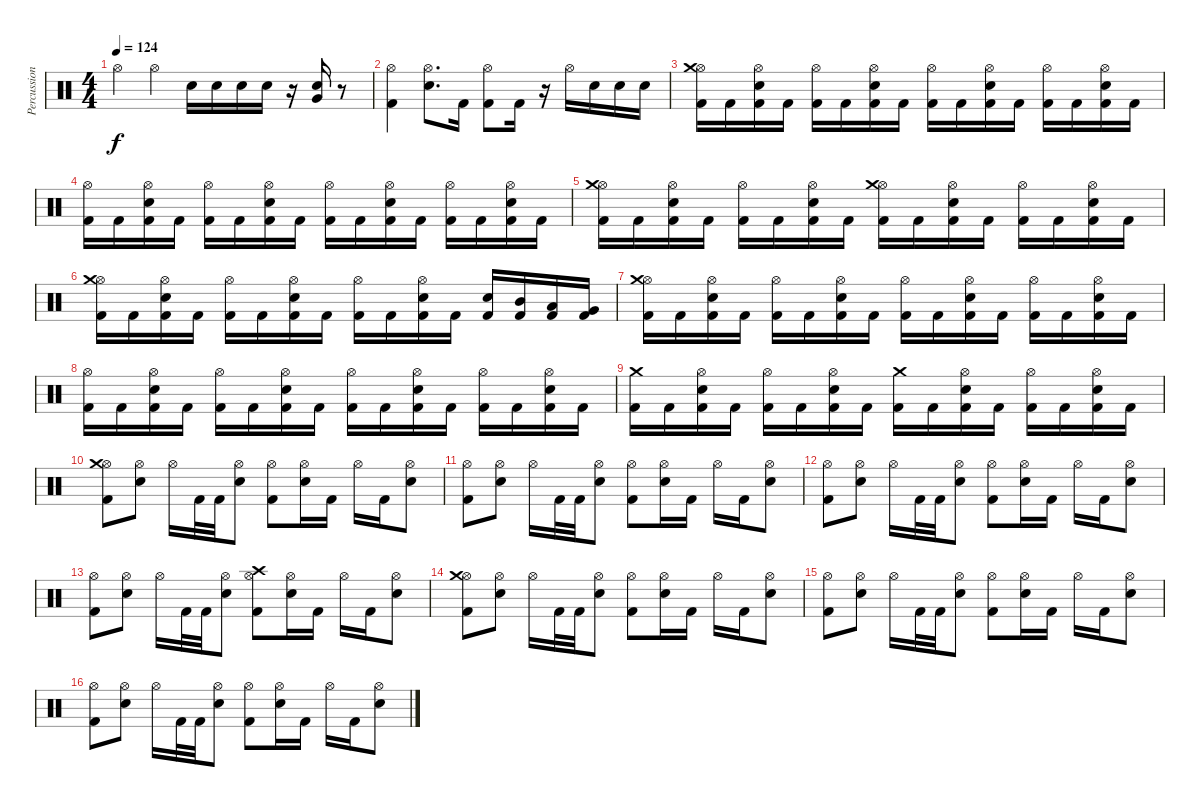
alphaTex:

\track ("Percussion" "Percussion") {instrument percussion}
\staff {score}
\articulation defaults
\ts (4 4)
\tempo 124
\clef neutral
\ks c "Hi-Hat (open)".4{dy f} "Hi-Hat (open)".4 "Electric Snare (hit)".16 "Electric Snare (hit)".16 "Electric Snare (hit)".16 "Electric Snare (hit)".16
r.16 ("Electric Snare (hit)" "Very Low Tom (hit)").16 r.8 |
("Kick (hit) 2" "Hi-Hat (open)").4 ("Electric Snare (hit)" "Hi-Hat (open)").8{d} "Kick (hit) 2".16 ("Kick (hit) 2" "Hi-Hat (open)").8 "Kick (hit) 2".16 r.16 "Hi-Hat (open)".16 "Electric Snare (hit)".16 "Electric Snare (hit)".16 "Electric Snare (hit)".16 |
("Kick (hit) 2" "Hi-Hat (open)" "Crash medium (hit)").16 "Kick (hit) 2".16 ("Kick (hit) 2" "Electric Snare (hit)" "Hi-Hat (open)").16 "Kick (hit) 2".16 ("Kick (hit) 2" "Hi-Hat (open)").16 "Kick (hit) 2".16 ("Kick (hit) 2" "Electric Snare (hit)" "Hi-Hat (open)").16 "Kick (hit) 2".16 ("Kick (hit) 2" "Hi-Hat (open)").16 "Kick (hit) 2".16 ("Kick (hit) 2" "Electric Snare (hit)" "Hi-Hat (open)").16 "Kick (hit) 2".16 ("Kick (hit) 2" "Hi-Hat (open)").16 "Kick (hit) 2".16 ("Kick (hit) 2" "Electric Snare (hit)" "Hi-Hat (open)").16 "Kick (hit) 2".16 |
("Kick (hit) 2" "Hi-Hat (open)").16 "Kick (hit) 2".16 ("Kick (hit) 2" "Electric Snare (hit)" "Hi-Hat (open)").16 "Kick (hit) 2".16 ("Kick (hit) 2" "Hi-Hat (open)").16 "Kick (hit) 2".16 ("Kick (hit) 2" "Electric Snare (hit)" "Hi-Hat (open)").16 "Kick (hit) 2".16 ("Kick (hit) 2" "Hi-Hat (open)").16 "Kick (hit) 2".16 ("Kick (hit) 2" "Electric Snare (hit)" "Hi-Hat (open)").16 "Kick (hit) 2".16 ("Kick (hit) 2" "Hi-Hat (open)").16 "Kick (hit) 2".16 ("Kick (hit) 2" "Electric Snare (hit)" "Hi-Hat (open)").16 "Kick (hit) 2".16 |
("Kick (hit) 2" "Hi-Hat (open)" "Crash medium (hit)").16 "Kick (hit) 2".16 ("Kick (hit) 2" "Electric Snare (hit)" "Hi-Hat (open)").16 "Kick (hit) 2".16 ("Kick (hit) 2" "Hi-Hat (open)").16 "Kick (hit) 2".16 ("Kick (hit) 2" "Electric Snare (hit)" "Hi-Hat (open)").16 "Kick (hit) 2".16 ("Kick (hit) 2" "Hi-Hat (open)" "Crash medium (hit)").16 "Kick (hit) 2".16 ("Kick (hit) 2" "Electric Snare (hit)" "Hi-Hat (open)").16 "Kick (hit) 2".16 ("Kick (hit) 2" "Hi-Hat (open)").16 "Kick (hit) 2".16 ("Kick (hit) 2" "Electric Snare (hit)" "Hi-Hat (open)").16 "Kick (hit) 2".16 |
("Kick (hit) 2" "Hi-Hat (open)" "Crash medium (hit)").16 "Kick (hit) 2".16 ("Kick (hit) 2" "Electric Snare (hit)" "Hi-Hat (open)").16 "Kick (hit) 2".16 ("Kick (hit) 2" "Hi-Hat (open)").16 "Kick (hit) 2".16 ("Kick (hit) 2" "Electric Snare (hit)" "Hi-Hat (open)").16 "Kick (hit) 2".16 ("Kick (hit) 2" "Hi-Hat (open)").16 "Kick (hit) 2".16 ("Kick (hit) 2" "Electric Snare (hit)" "Hi-Hat (open)").16 "Kick (hit) 2".16 ("Kick (hit) 2" "Electric Snare (hit)").16 ("Kick (hit) 2" "Mid Tom (hit)").16 ("Kick (hit) 2" "Low Tom (hit)").16 ("Kick (hit) 2" "Very Low Tom (hit)").16 |
("Kick (hit) 2" "Hi-Hat (open)" "Crash medium (hit)").16 "Kick (hit) 2".16 ("Kick (hit) 2" "Electric Snare (hit)" "Hi-Hat (open)").16 "Kick (hit) 2".16 ("Kick (hit) 2" "Hi-Hat (open)").16 "Kick (hit) 2".16 ("Kick (hit) 2" "Electric Snare (hit)" "Hi-Hat (open)").16 "Kick (hit) 2".16 ("Kick (hit) 2" "Hi-Hat (open)").16 "Kick (hit) 2".16 ("Kick (hit) 2" "Electric Snare (hit)" "Hi-Hat (open)").16 "Kick (hit) 2".16 ("Kick (hit) 2" "Hi-Hat (open)").16 "Kick (hit) 2".16 ("Kick (hit) 2" "Electric Snare (hit)" "Hi-Hat (open)").16 "Kick (hit) 2".16 |
("Kick (hit) 2" "Hi-Hat (open)").16 "Kick (hit) 2".16 ("Kick (hit) 2" "Electric Snare (hit)" "Hi-Hat (open)").16 "Kick (hit) 2".16 ("Kick (hit) 2" "Hi-Hat (open)").16 "Kick (hit) 2".16 ("Kick (hit) 2" "Electric Snare (hit)" "Hi-Hat (open)").16 "Kick (hit) 2".16 ("Kick (hit) 2" "Hi-Hat (open)").16 "Kick (hit) 2".16 ("Kick (hit) 2" "Electric Snare (hit)" "Hi-Hat (open)").16 "Kick (hit) 2".16 ("Kick (hit) 2" "Hi-Hat (open)").16 "Kick (hit) 2".16 ("Kick (hit) 2" "Electric Snare (hit)" "Hi-Hat (open)").16 "Kick (hit) 2".16 |
("Kick (hit) 2" "Crash medium (hit)").16 "Kick (hit) 2".16 ("Kick (hit) 2" "Electric Snare (hit)" "Hi-Hat (open)").16 "Kick (hit) 2".16 ("Kick (hit) 2" "Hi-Hat (open)").16 "Kick (hit) 2".16 ("Kick (hit) 2" "Electric Snare (hit)" "Hi-Hat (open)").16 "Kick (hit) 2".16 ("Kick (hit) 2" "Crash medium (hit)").16 "Kick (hit) 2".16 ("Kick (hit) 2" "Electric Snare (hit)" "Hi-Hat (open)").16 "Kick (hit) 2".16 ("Kick (hit) 2" "Hi-Hat (open)").16 "Kick (hit) 2".16 ("Kick (hit) 2" "Electric Snare (hit)" "Hi-Hat (open)").16 "Kick (hit) 2".16 |
("Kick (hit) 2" "Hi-Hat (open)" "Crash medium (hit)").8 ("Electric Snare (hit)" "Hi-Hat (open)").8 "Hi-Hat (open)".16 "Kick (hit) 2".32 "Kick (hit) 2".32 ("Electric Snare (hit)" "Hi-Hat (open)").8 ("Kick (hit) 2" "Hi-Hat (open)").8 ("Electric Snare (hit)" "Hi-Hat (open)").16 "Kick (hit) 2".16 "Hi-Hat (open)".16 "Kick (hit) 2".16 ("Electric Snare (hit)" "Hi-Hat (open)").8 |
("Kick (hit) 2" "Hi-Hat (open)").8 ("Electric Snare (hit)" "Hi-Hat (open)").8 "Hi-Hat (open)".16 "Kick (hit) 2".32 "Kick (hit) 2".32 ("Electric Snare (hit)" "Hi-Hat (open)").8 ("Kick (hit) 2" "Hi-Hat (open)").8 ("Electric Snare (hit)" "Hi-Hat (open)").16 "Kick (hit) 2".16 "Hi-Hat (open)".16 "Kick (hit) 2".16 ("Electric Snare (hit)" "Hi-Hat (open)").8 |
("Kick (hit) 2" "Hi-Hat (open)").8 ("Electric Snare (hit)" "Hi-Hat (open)").8 "Hi-Hat (open)".16 "Kick (hit) 2".32 "Kick (hit) 2".32 ("Electric Snare (hit)" "Hi-Hat (open)").8 ("Kick (hit) 2" "Hi-Hat (open)").8 ("Electric Snare (hit)" "Hi-Hat (open)").16 "Kick (hit) 2".16 "Hi-Hat (open)".16 "Kick (hit) 2".16 ("Electric Snare (hit)" "Hi-Hat (open)").8 |
("Kick (hit) 2" "Hi-Hat (open)").8 ("Electric Snare (hit)" "Hi-Hat (open)").8 "Hi-Hat (open)".16 "Kick (hit) 2".32 "Kick (hit) 2".32 ("Electric Snare (hit)" "Hi-Hat (open)").8 ("Kick (hit) 2" "Hi-Hat (open)" "Crash high (hit)").8 ("Electric Snare (hit)" "Hi-Hat (open)").16 "Kick (hit) 2".16 "Hi-Hat (open)".16 "Kick (hit) 2".16 ("Electric Snare (hit)" "Hi-Hat (open)").8 |
("Kick (hit) 2" "Hi-Hat (open)" "Crash medium (hit)").8 ("Electric Snare (hit)" "Hi-Hat (open)").8 "Hi-Hat (open)".16 "Kick (hit) 2".32 "Kick (hit) 2".32 ("Electric Snare (hit)" "Hi-Hat (open)").8 ("Kick (hit) 2" "Hi-Hat (open)").8 ("Electric Snare (hit)" "Hi-Hat (open)").16 "Kick (hit) 2".16 "Hi-Hat (open)".16 "Kick (hit) 2".16 ("Electric Snare (hit)" "Hi-Hat (open)").8 |
("Kick (hit) 2" "Hi-Hat (open)").8 ("Electric Snare (hit)" "Hi-Hat (open)").8 "Hi-Hat (open)".16 "Kick (hit) 2".32 "Kick (hit) 2".32 ("Electric Snare (hit)" "Hi-Hat (open)").8 ("Kick (hit) 2" "Hi-Hat (open)").8 ("Electric Snare (hit)" "Hi-Hat (open)").16 "Kick (hit) 2".16 "Hi-Hat (open)".16 "Kick (hit) 2".16 ("Electric Snare (hit)" "Hi-Hat (open)").8 |
("Kick (hit) 2" "Hi-Hat (open)").8 ("Electric Snare (hit)" "Hi-Hat (open)").8 "Hi-Hat (open)".16 "Kick (hit) 2".32 "Kick (hit) 2".32 ("Electric Snare (hit)" "Hi-Hat (open)").8 ("Kick (hit) 2" "Hi-Hat (open)").8 ("Electric Snare (hit)" "Hi-Hat (open)").16 "Kick (hit) 2".16 "Hi-Hat (open)".16 "Kick (hit) 2".16 ("Electric Snare (hit)" "Hi-Hat (open)").8
